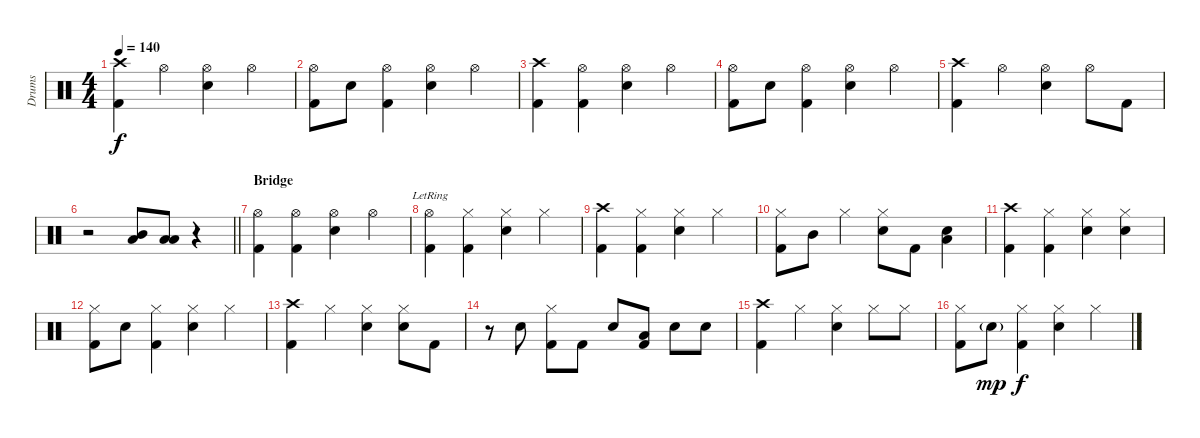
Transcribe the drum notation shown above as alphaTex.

\track ("Drums" "Drums") {instrument percussion}
\staff {score}
\articulation defaults
\ts (4 4)
\tempo 140
\clef neutral
\ks c
("Crash high (hit)" "Kick (hit) 2").4{dy f} "Hi-Hat (open)".4 ("Snare (hit) 2" "Hi-Hat (open)").4 "Hi-Hat (open)".4 |
("Kick (hit) 2" "Hi-Hat (open)").8 "Snare (hit) 2".8 ("Kick (hit) 2" "Hi-Hat (open)").4 ("Snare (hit) 2" "Hi-Hat (open)").4 "Hi-Hat (open)".4 |
("Crash high (hit)" "Kick (hit) 2").4 ("Kick (hit) 2" "Hi-Hat (open)").4 ("Snare (hit) 2" "Hi-Hat (open)").4 "Hi-Hat (open)".4 |
("Kick (hit) 2" "Hi-Hat (open)").8 "Snare (hit) 2".8 ("Kick (hit) 2" "Hi-Hat (open)").4 ("Snare (hit) 2" "Hi-Hat (open)").4 "Hi-Hat (open)".4 |
("Crash high (hit)" "Kick (hit) 2").4 "Hi-Hat (open)".4 ("Snare (hit) 2" "Hi-Hat (open)").4 "Hi-Hat (open)".8 "Kick (hit) 2".8 |
\barLineRight lightlight
r.2 ("Low Floor Tom (hit)" "Mid Tom (hit)").8 ("Low Floor Tom (hit)" "Low Tom (hit)").8 r.4 |
\section ("" "Bridge")
("Kick (hit) 2" "Hi-Hat (open)").4{volume 14} ("Kick (hit) 2" "Hi-Hat (open)").4 ("Snare (hit) 2" "Hi-Hat (open)").4 "Hi-Hat (open)".4 |
("Kick (hit) 2" "Hi-Hat (open)"{lr}).4 ("Kick (hit) 2" "Hi-Hat (closed)").4 ("Snare (hit) 2" "Hi-Hat (closed)").4 "Hi-Hat (closed)".4 |
("Kick (hit) 2" "Crash high (hit)").4 ("Kick (hit) 2" "Hi-Hat (closed)").4 ("Snare (hit) 2" "Hi-Hat (closed)").4 "Hi-Hat (closed)".4 |
("Kick (hit) 2" "Hi-Hat (closed)").8 "Mid Tom (hit)".8 "Hi-Hat (closed)".4 ("Snare (hit) 2" "Hi-Hat (closed)").8 "Kick (hit) 2".8 ("Low Tom (hit)" "Snare (hit) 2").4 |
("Kick (hit) 2" "Crash high (hit)").4 ("Kick (hit) 2" "Hi-Hat (closed)").4 ("Snare (hit) 2" "Hi-Hat (closed)").4 ("Snare (hit) 2" "Hi-Hat (closed)").4 |
("Kick (hit) 2" "Hi-Hat (closed)").8 "Snare (hit) 2".8 ("Kick (hit) 2" "Hi-Hat (closed)").4 ("Snare (hit) 2" "Hi-Hat (closed)").4 "Hi-Hat (closed)".4 |
("Kick (hit) 2" "Crash high (hit)").4 "Hi-Hat (closed)".4 ("Snare (hit) 2" "Hi-Hat (closed)").4 ("Snare (hit) 2" "Hi-Hat (closed)").8 "Kick (hit) 2".8 |
r.8 "Snare (hit) 2".8 ("Kick (hit) 2" "Hi-Hat (closed)").8 "Kick (hit) 2".8 "Snare (hit) 2".8 ("Low Tom (hit)" "Kick (hit) 2").8 "Snare (hit) 2".8 "Snare (hit) 2".8 |
("Crash high (hit)" "Kick (hit) 2").4{volume 14} "Hi-Hat (closed)".4 ("Snare (hit) 2" "Hi-Hat (closed)").4 "Hi-Hat (closed)".8 "Hi-Hat (closed)".8 |
("Hi-Hat (closed)" "Kick (hit) 2").8 "Snare (hit) 2"{g}.8{dy mp} ("Kick (hit) 2" "Hi-Hat (closed)").4{dy f} ("Snare (hit) 2" "Hi-Hat (closed)").4 "Hi-Hat (closed)".4
